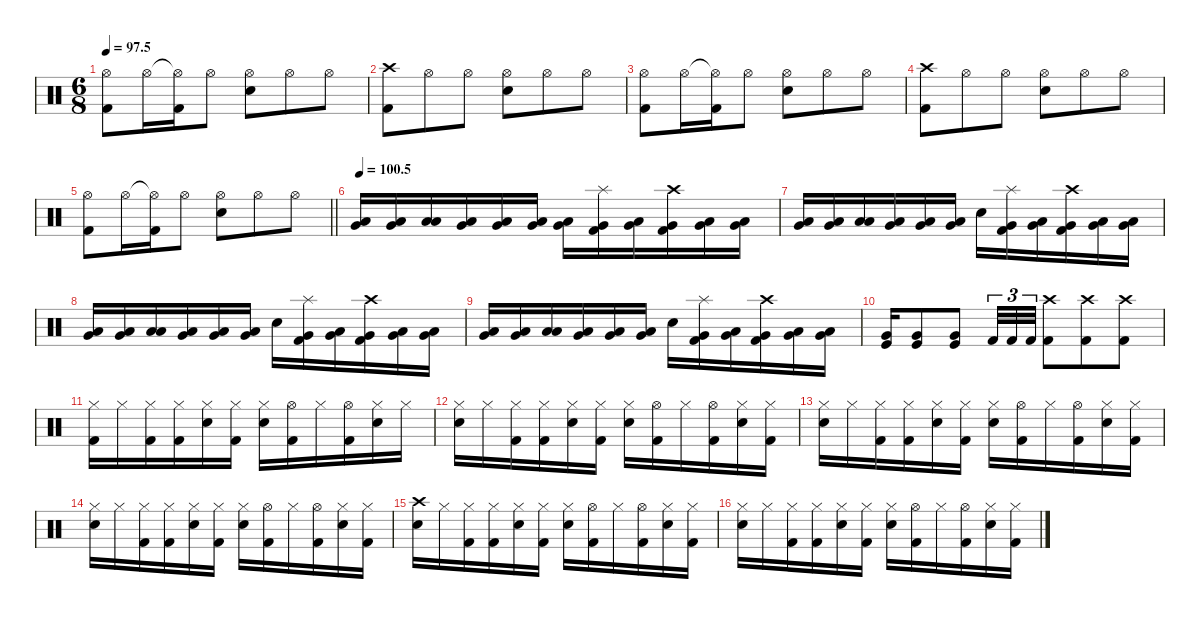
\defaultSystemsLayout 4
\hideDynamics
\bracketExtendMode nobrackets
\singleTrackTrackNamePolicy hidden
\multiTrackTrackNamePolicy hidden
\firstSystemTrackNameMode fullname
\firstSystemTrackNameOrientation horizontal
\otherSystemsTrackNameOrientation horizontal
\track ("Drums" "drm.") {instrument percussion}
\staff {score}
\articulation defaults
\ts (6 8)
\tempo
97.5
\accidentals auto
\clef neutral
\ottava regular
\simile none
\ks c
("Hi-Hat (open)" "Kick (hit) 2").8{dy f beam Down} "Hi-Hat (open)".16{beam Down} ("Hi-Hat (open)"{t} "Kick (hit) 2").16{beam Down} "Hi-Hat (open)".8{beam Down} ("Hi-Hat (open)" "Snare (hit) 2").8{beam Down} "Hi-Hat (open)".8{beam Down} "Hi-Hat (open)".8{beam Down} |
("Crash high (hit)" "Kick (hit) 2").8{beam Down} "Hi-Hat (open)".8{beam Down} "Hi-Hat (open)".8{beam Down} ("Hi-Hat (open)" "Snare (hit) 2").8{beam Down} "Hi-Hat (open)".8{beam Down} "Hi-Hat (open)".8{beam Down} |
("Hi-Hat (open)" "Kick (hit) 2").8{beam Down} "Hi-Hat (open)".16{beam Down} ("Hi-Hat (open)"{t} "Kick (hit) 2").16{beam Down} "Hi-Hat (open)".8{beam Down} ("Hi-Hat (open)" "Snare (hit) 2").8{beam Down} "Hi-Hat (open)".8{beam Down} "Hi-Hat (open)".8{beam Down} |
("Crash high (hit)" "Kick (hit) 2").8{beam Down} "Hi-Hat (open)".8{beam Down} "Hi-Hat (open)".8{beam Down} ("Hi-Hat (open)" "Snare (hit) 2").8{beam Down} "Hi-Hat (open)".8{beam Down} "Hi-Hat (open)".8{beam Down} |
\barLineRight lightlight
("Hi-Hat (open)" "Kick (hit) 2").8{beam Down} "Hi-Hat (open)".16{beam Down} ("Hi-Hat (open)"{t} "Kick (hit) 2").16{beam Down} "Hi-Hat (open)".8{beam Down} ("Hi-Hat (open)" "Snare (hit) 2").8{beam Down} "Hi-Hat (open)".8{beam Down} "Hi-Hat (open)".8{beam Down} |
\tempo
100.5 ("Low Tom (hit)" "Very Low Tom (hit)").16{dy mf beam Up} ("Low Tom (hit)" "Very Low Tom (hit)").16{dy f beam Up} ("Low Tom (hit)" "Low Tom (hit)").16{dy mf beam Up} ("Low Tom (hit)" "Very Low Tom (hit)").16{dy f beam Up} ("Low Tom (hit)" "Very Low Tom (hit)").16{dy mp beam Up} ("Low Tom (hit)" "Very Low Tom (hit)").16{dy f beam Up} ("Low Tom (hit)" "Very Low Tom (hit)").16{dy mf beam Down} ("Splash (hit)" "Very Low Tom (hit)" "Kick (hit) 2").16{dy ff beam Down} ("Low Tom (hit)" "Very Low Tom (hit)").16{dy mp beam Down} ("Crash high (hit)" "Very Low Tom (hit)" "Kick (hit) 2").16{dy f beam Down} ("Low Tom (hit)" "Very Low Tom (hit)").16{dy mf beam Down} ("Low Tom (hit)" "Very Low Tom (hit)").16{dy f beam Down} |
("Low Tom (hit)" "Very Low Tom (hit)").16{dy mf beam Up} ("Low Tom (hit)" "Very Low Tom (hit)").16{dy f beam Up} ("Low Tom (hit)" "Low Tom (hit)").16{dy mf beam Up} ("Low Tom (hit)" "Very Low Tom (hit)").16{dy f beam Up} ("Low Tom (hit)" "Very Low Tom (hit)").16{dy mp beam Up} ("Low Tom (hit)" "Very Low Tom (hit)").16{dy f beam Up} "Snare (hit) 2".16{beam Down} ("Splash (hit)" "Very Low Tom (hit)" "Kick (hit) 2").16{dy ff beam Down} ("Low Tom (hit)" "Very Low Tom (hit)").16{dy mp beam Down} ("Crash high (hit)" "Very Low Tom (hit)" "Kick (hit) 2").16{dy f beam Down} ("Low Tom (hit)" "Very Low Tom (hit)").16{dy mf beam Down} ("Low Tom (hit)" "Very Low Tom (hit)").16{dy f beam Down} |
("Low Tom (hit)" "Very Low Tom (hit)").16{dy mf beam Up} ("Low Tom (hit)" "Very Low Tom (hit)").16{dy f beam Up} ("Low Tom (hit)" "Low Tom (hit)").16{dy mf beam Up} ("Low Tom (hit)" "Very Low Tom (hit)").16{dy f beam Up} ("Low Tom (hit)" "Very Low Tom (hit)").16{dy mp beam Up} ("Low Tom (hit)" "Very Low Tom (hit)").16{dy f beam Up} "Snare (hit) 2".16{beam Down} ("Splash (hit)" "Very Low Tom (hit)" "Kick (hit) 2").16{dy ff beam Down} ("Low Tom (hit)" "Very Low Tom (hit)").16{dy mp beam Down} ("Crash high (hit)" "Very Low Tom (hit)" "Kick (hit) 2").16{dy f beam Down} ("Low Tom (hit)" "Very Low Tom (hit)").16{dy mf beam Down} ("Low Tom (hit)" "Very Low Tom (hit)").16{dy f beam Down} |
("Low Tom (hit)" "Very Low Tom (hit)").16{dy mf beam Up} ("Low Tom (hit)" "Very Low Tom (hit)").16{dy f beam Up} ("Low Tom (hit)" "Low Tom (hit)").16{dy mf beam Up} ("Low Tom (hit)" "Very Low Tom (hit)").16{dy f beam Up} ("Low Tom (hit)" "Very Low Tom (hit)").16{dy mp beam Up} ("Low Tom (hit)" "Very Low Tom (hit)").16{dy f beam Up} "Snare (hit) 2".16{beam Down} ("Splash (hit)" "Very Low Tom (hit)" "Kick (hit) 2").16{dy ff beam Down} ("Low Tom (hit)" "Very Low Tom (hit)").16{dy mp beam Down} ("Crash high (hit)" "Very Low Tom (hit)" "Kick (hit) 2").16{dy f beam Down} ("Low Tom (hit)" "Very Low Tom (hit)").16{dy mf beam Down} ("Low Tom (hit)" "Very Low Tom (hit)").16{dy f beam Down} |
("Very Low Tom (hit)" "Kick (hit)").16{dy ff beam Up} ("Very Low Tom (hit)" "Kick (hit)").8{beam Up} ("Very Low Tom (hit)" "Kick (hit)").8{beam Up} "Kick (hit) 2".32{tu (3 2) dy f beam Up} "Kick (hit) 2".32{tu (3 2) beam Up} "Kick (hit) 2".32{tu (3 2) beam Up} ("Crash high (hit)" "Kick (hit) 2").8{beam Down} ("Crash high (hit)" "Kick (hit) 2").8{beam Down} ("Crash high (hit)" "Kick (hit) 2").8{beam Down} |
("Hi-Hat (closed)" "Kick (hit) 2").16{beam Down} "Hi-Hat (closed)".16{beam Down} ("Hi-Hat (closed)" "Kick (hit) 2").16{beam Down} ("Hi-Hat (closed)" "Kick (hit) 2").16{beam Down} ("Hi-Hat (closed)" "Snare (hit) 2").16{beam Down} ("Hi-Hat (closed)" "Kick (hit) 2").16{beam Down} ("Hi-Hat (closed)" "Snare (hit) 2").16{beam Down} ("Hi-Hat (open)" "Kick (hit) 2").16{dy ff beam Down} "Hi-Hat (closed)".16{dy f beam Down} ("Hi-Hat (open)" "Kick (hit) 2").16{dy ff beam Down} ("Hi-Hat (closed)" "Snare (hit) 2").16{dy f beam Down} "Hi-Hat (closed)".16{beam Down} |
("Hi-Hat (closed)" "Snare (hit) 2").16{beam Down} "Hi-Hat (closed)".16{beam Down} ("Hi-Hat (closed)" "Kick (hit) 2").16{beam Down} ("Hi-Hat (closed)" "Kick (hit) 2").16{beam Down} ("Hi-Hat (closed)" "Snare (hit) 2").16{beam Down} ("Hi-Hat (closed)" "Kick (hit) 2").16{beam Down} ("Hi-Hat (closed)" "Snare (hit) 2").16{beam Down} ("Hi-Hat (open)" "Kick (hit) 2").16{dy ff beam Down} "Hi-Hat (closed)".16{dy f beam Down} ("Hi-Hat (open)" "Kick (hit) 2").16{dy ff beam Down} ("Hi-Hat (closed)" "Snare (hit) 2").16{dy f beam Down} ("Hi-Hat (closed)" "Kick (hit) 2").16{beam Down} |
("Hi-Hat (closed)" "Snare (hit) 2").16{beam Down} "Hi-Hat (closed)".16{beam Down} ("Hi-Hat (closed)" "Kick (hit) 2").16{beam Down} ("Hi-Hat (closed)" "Kick (hit) 2").16{beam Down} ("Hi-Hat (closed)" "Snare (hit) 2").16{beam Down} ("Hi-Hat (closed)" "Kick (hit) 2").16{beam Down} ("Hi-Hat (closed)" "Snare (hit) 2").16{beam Down} ("Hi-Hat (open)" "Kick (hit) 2").16{dy ff beam Down} "Hi-Hat (closed)".16{dy f beam Down} ("Hi-Hat (open)" "Kick (hit) 2").16{dy ff beam Down} ("Hi-Hat (closed)" "Snare (hit) 2").16{dy f beam Down} ("Hi-Hat (closed)" "Kick (hit) 2").16{beam Down} |
("Hi-Hat (closed)" "Snare (hit) 2").16{beam Down} "Hi-Hat (closed)".16{beam Down} ("Hi-Hat (closed)" "Kick (hit) 2").16{beam Down} ("Hi-Hat (closed)" "Kick (hit) 2").16{beam Down} ("Hi-Hat (closed)" "Snare (hit) 2").16{beam Down} ("Hi-Hat (closed)" "Kick (hit) 2").16{beam Down} ("Hi-Hat (closed)" "Snare (hit) 2").16{beam Down} ("Hi-Hat (open)" "Kick (hit) 2").16{dy ff beam Down} "Hi-Hat (closed)".16{dy f beam Down} ("Hi-Hat (open)" "Kick (hit) 2").16{dy ff beam Down} ("Hi-Hat (closed)" "Snare (hit) 2").16{dy f beam Down} ("Hi-Hat (closed)" "Kick (hit) 2").16{beam Down} |
("Crash high (hit)" "Snare (hit) 2").16{beam Down} "Hi-Hat (closed)".16{beam Down} ("Hi-Hat (closed)" "Kick (hit) 2").16{beam Down} ("Hi-Hat (closed)" "Kick (hit) 2").16{beam Down} ("Hi-Hat (closed)" "Snare (hit) 2").16{beam Down} ("Hi-Hat (closed)" "Kick (hit) 2").16{beam Down} ("Hi-Hat (closed)" "Snare (hit) 2").16{beam Down} ("Hi-Hat (open)" "Kick (hit) 2").16{dy ff beam Down} "Hi-Hat (closed)".16{dy f beam Down} ("Hi-Hat (open)" "Kick (hit) 2").16{dy ff beam Down} ("Hi-Hat (closed)" "Snare (hit) 2").16{dy f beam Down} ("Hi-Hat (closed)" "Kick (hit) 2").16{beam Down} |
("Hi-Hat (closed)" "Snare (hit) 2").16{beam Down} "Hi-Hat (closed)".16{beam Down} ("Hi-Hat (closed)" "Kick (hit) 2").16{beam Down} ("Hi-Hat (closed)" "Kick (hit) 2").16{beam Down} ("Hi-Hat (closed)" "Snare (hit) 2").16{beam Down} ("Hi-Hat (closed)" "Kick (hit) 2").16{beam Down} ("Hi-Hat (closed)" "Snare (hit) 2").16{beam Down} ("Hi-Hat (open)" "Kick (hit) 2").16{dy ff beam Down} "Hi-Hat (closed)".16{dy f beam Down} ("Hi-Hat (open)" "Kick (hit) 2").16{dy ff beam Down} ("Hi-Hat (closed)" "Snare (hit) 2").16{dy f beam Down} ("Hi-Hat (closed)" "Kick (hit) 2").16{beam Down}
